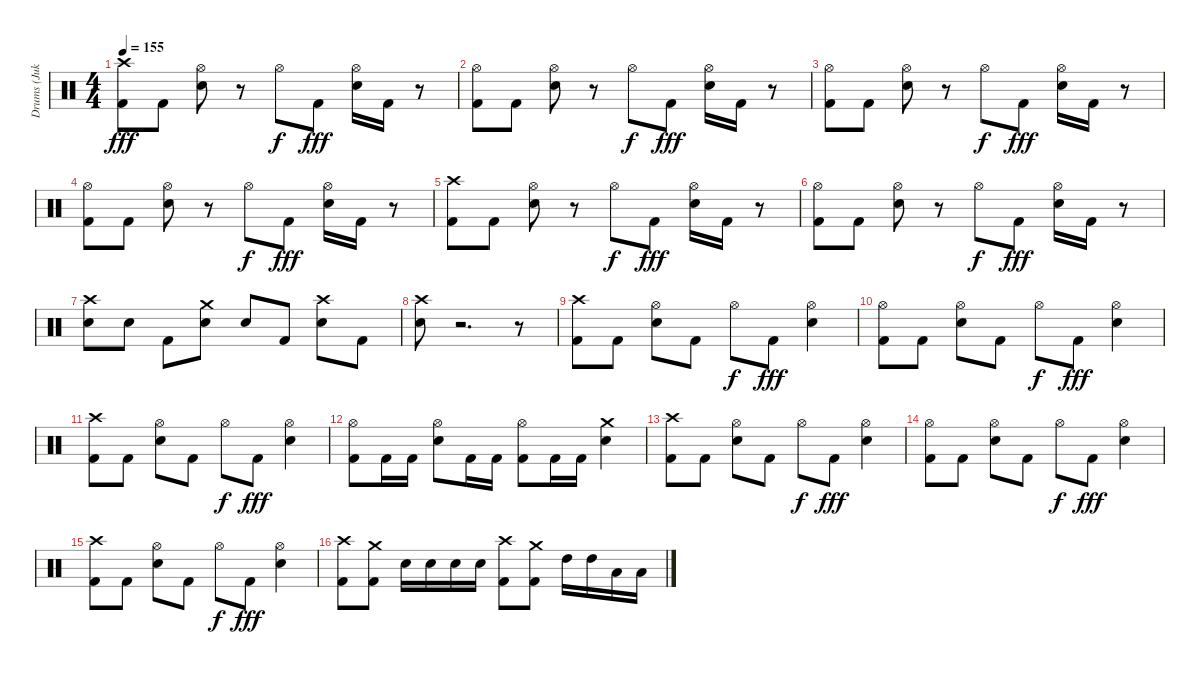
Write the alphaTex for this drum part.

\track ("Drums (Jukka)" "Drums (Juk") {instrument percussion}
\staff {score}
\articulation defaults
\ts (4 4)
\tempo 155
\clef neutral
\ks c
("Kick (hit) 2" "Crash high (hit)").8{dy fff} "Kick (hit) 2".8 ("Snare (hit) 2" "Hi-Hat (open)").8 r.8 "Hi-Hat (open)".8{dy f} "Kick (hit) 2".8{dy fff} ("Snare (hit) 2" "Hi-Hat (open)").16 "Kick (hit) 2".16 r.8 |
("Kick (hit) 2" "Hi-Hat (open)").8 "Kick (hit) 2".8 ("Snare (hit) 2" "Hi-Hat (open)").8 r.8 "Hi-Hat (open)".8{dy f} "Kick (hit) 2".8{dy fff} ("Snare (hit) 2" "Hi-Hat (open)").16 "Kick (hit) 2".16 r.8 |
("Kick (hit) 2" "Hi-Hat (open)").8 "Kick (hit) 2".8 ("Snare (hit) 2" "Hi-Hat (open)").8 r.8 "Hi-Hat (open)".8{dy f} "Kick (hit) 2".8{dy fff} ("Snare (hit) 2" "Hi-Hat (open)").16 "Kick (hit) 2".16 r.8 |
("Kick (hit) 2" "Hi-Hat (open)").8 "Kick (hit) 2".8 ("Snare (hit) 2" "Hi-Hat (open)").8 r.8 "Hi-Hat (open)".8{dy f} "Kick (hit) 2".8{dy fff} ("Snare (hit) 2" "Hi-Hat (open)").16 "Kick (hit) 2".16 r.8 |
("Kick (hit) 2" "Crash high (hit)").8 "Kick (hit) 2".8 ("Snare (hit) 2" "Hi-Hat (open)").8 r.8 "Hi-Hat (open)".8{dy f} "Kick (hit) 2".8{dy fff} ("Snare (hit) 2" "Hi-Hat (open)").16 "Kick (hit) 2".16 r.8 |
("Kick (hit) 2" "Hi-Hat (open)").8 "Kick (hit) 2".8 ("Snare (hit) 2" "Hi-Hat (open)").8 r.8 "Hi-Hat (open)".8{dy f} "Kick (hit) 2".8{dy fff} ("Snare (hit) 2" "Hi-Hat (open)").16 "Kick (hit) 2".16 r.8 |
("Snare (hit) 2" "Crash high (hit)").8 "Snare (hit) 2".8 "Kick (hit) 2".8 ("Snare (hit) 2" "Crash medium (hit)").8 "Snare (hit) 2".8 "Kick (hit) 2".8 ("Snare (hit) 2" "Crash high (hit)").8 "Kick (hit) 2".8 |
("Snare (hit) 2" "Crash high (hit)").8 r.2{d} r.8 |
("Kick (hit) 2" "Crash high (hit)").8 "Kick (hit) 2".8 ("Snare (hit) 2" "Hi-Hat (open)").8 "Kick (hit) 2".8 "Hi-Hat (open)".8{dy f} "Kick (hit) 2".8{dy fff} ("Snare (hit) 2" "Hi-Hat (open)").4 |
("Kick (hit) 2" "Hi-Hat (open)").8 "Kick (hit) 2".8 ("Snare (hit) 2" "Hi-Hat (open)").8 "Kick (hit) 2".8 "Hi-Hat (open)".8{dy f} "Kick (hit) 2".8{dy fff} ("Snare (hit) 2" "Hi-Hat (open)").4 |
("Kick (hit) 2" "Crash high (hit)").8 "Kick (hit) 2".8 ("Snare (hit) 2" "Hi-Hat (open)").8 "Kick (hit) 2".8 "Hi-Hat (open)".8{dy f} "Kick (hit) 2".8{dy fff} ("Snare (hit) 2" "Hi-Hat (open)").4 |
("Kick (hit) 2" "Hi-Hat (open)").8 "Kick (hit) 2".16 "Kick (hit) 2".16 ("Snare (hit) 2" "Hi-Hat (open)").8 "Kick (hit) 2".16 "Kick (hit) 2".16 ("Kick (hit) 2" "Hi-Hat (open)").8 "Kick (hit) 2".16 "Kick (hit) 2".16 ("Snare (hit) 2" "Crash medium (hit)").4 |
("Kick (hit) 2" "Crash high (hit)").8 "Kick (hit) 2".8 ("Snare (hit) 2" "Hi-Hat (open)").8 "Kick (hit) 2".8 "Hi-Hat (open)".8{dy f} "Kick (hit) 2".8{dy fff} ("Snare (hit) 2" "Hi-Hat (open)").4 |
("Kick (hit) 2" "Hi-Hat (open)").8 "Kick (hit) 2".8 ("Snare (hit) 2" "Hi-Hat (open)").8 "Kick (hit) 2".8 "Hi-Hat (open)".8{dy f} "Kick (hit) 2".8{dy fff} ("Snare (hit) 2" "Hi-Hat (open)").4 |
("Kick (hit) 2" "Crash high (hit)").8 "Kick (hit) 2".8 ("Snare (hit) 2" "Hi-Hat (open)").8 "Kick (hit) 2".8 "Hi-Hat (open)".8{dy f} "Kick (hit) 2".8{dy fff} ("Snare (hit) 2" "Hi-Hat (open)").4 |
("Kick (hit) 2" "Crash high (hit)").8 ("Kick (hit) 2" "Crash medium (hit)").8 "Snare (hit) 2".16 "Snare (hit) 2".16 "Snare (hit) 2".16 "Snare (hit) 2".16 ("Kick (hit) 2" "Crash high (hit)").8 ("Kick (hit) 2" "Crash medium (hit)").8 "High Tom (hit)".16 "High Tom (hit)".16 "Low Tom (hit)".16 "Low Floor Tom (hit)".16
